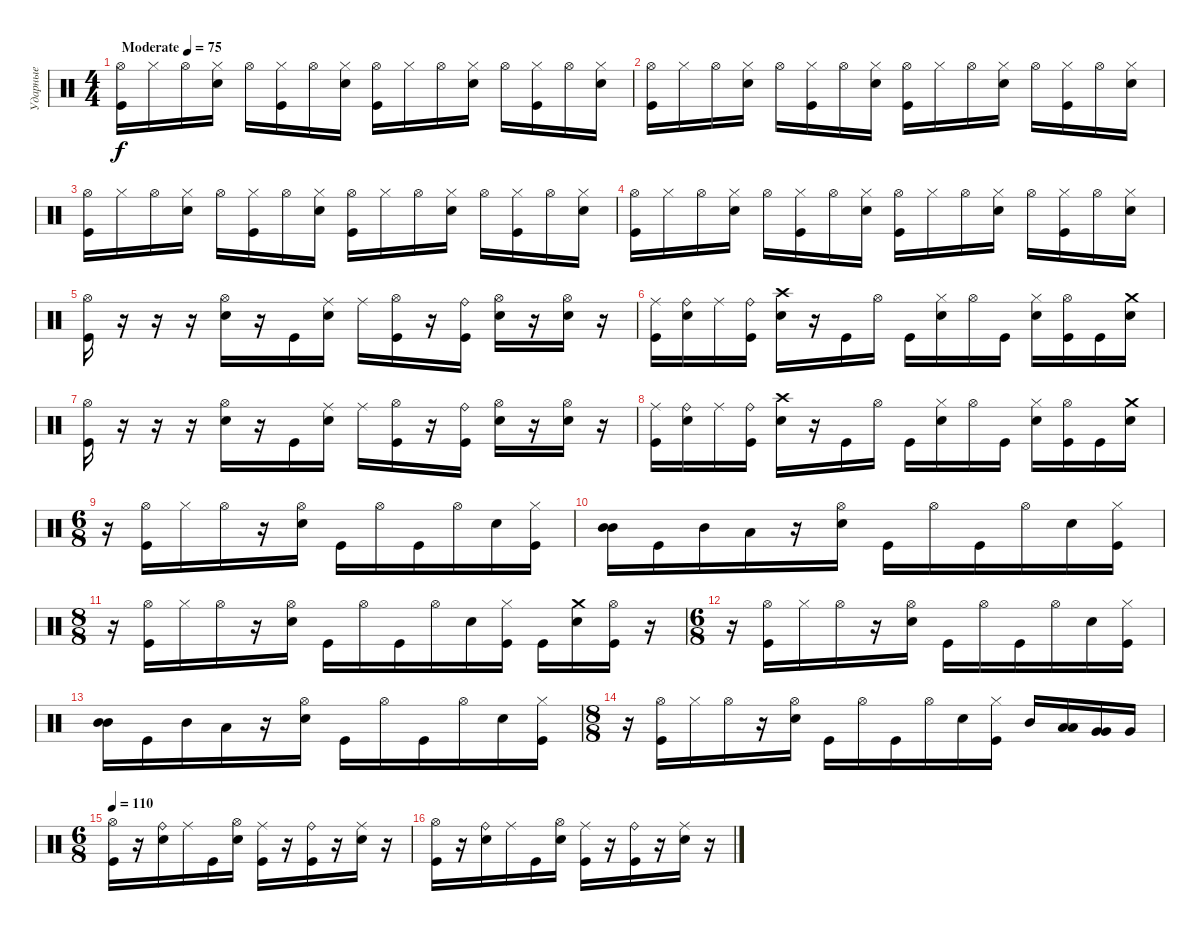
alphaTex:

\track ("Ударные" "Ударные") {instrument percussion}
\staff {score}
\articulation defaults
\ts (4 4)
\tempo (75 "Moderate")
\clef neutral
\ks c
("Hi-Hat (open)" "Kick (hit)").16{dy f} "Hi-Hat (closed)".16 "Hi-Hat (open)".16 ("Hi-Hat (closed)" "Snare (hit) 2").16 "Hi-Hat (open)".16 ("Hi-Hat (closed)" "Kick (hit)").16 "Hi-Hat (open)".16 ("Hi-Hat (closed)" "Snare (hit) 2").16 ("Hi-Hat (open)" "Kick (hit)").16 "Hi-Hat (closed)".16 "Hi-Hat (open)".16 ("Hi-Hat (closed)" "Snare (hit) 2").16 "Hi-Hat (open)".16 ("Hi-Hat (closed)" "Kick (hit)").16 "Hi-Hat (open)".16 ("Hi-Hat (closed)" "Snare (hit) 2").16 |
("Hi-Hat (open)" "Kick (hit)").16 "Hi-Hat (closed)".16 "Hi-Hat (open)".16 ("Hi-Hat (closed)" "Snare (hit) 2").16 "Hi-Hat (open)".16 ("Hi-Hat (closed)" "Kick (hit)").16 "Hi-Hat (open)".16 ("Hi-Hat (closed)" "Snare (hit) 2").16 ("Hi-Hat (open)" "Kick (hit)").16 "Hi-Hat (closed)".16 "Hi-Hat (open)".16 ("Hi-Hat (closed)" "Snare (hit) 2").16 "Hi-Hat (open)".16 ("Hi-Hat (closed)" "Kick (hit)").16 "Hi-Hat (open)".16 ("Hi-Hat (closed)" "Snare (hit) 2").16 |
("Hi-Hat (open)" "Kick (hit)").16 "Hi-Hat (closed)".16 "Hi-Hat (open)".16 ("Hi-Hat (closed)" "Snare (hit) 2").16 "Hi-Hat (open)".16 ("Hi-Hat (closed)" "Kick (hit)").16 "Hi-Hat (open)".16 ("Hi-Hat (closed)" "Snare (hit) 2").16 ("Hi-Hat (open)" "Kick (hit)").16 "Hi-Hat (closed)".16 "Hi-Hat (open)".16 ("Hi-Hat (closed)" "Snare (hit) 2").16 "Hi-Hat (open)".16 ("Hi-Hat (closed)" "Kick (hit)").16 "Hi-Hat (open)".16 ("Hi-Hat (closed)" "Snare (hit) 2").16 |
("Hi-Hat (open)" "Kick (hit)").16 "Hi-Hat (closed)".16 "Hi-Hat (open)".16 ("Hi-Hat (closed)" "Snare (hit) 2").16 "Hi-Hat (open)".16 ("Hi-Hat (closed)" "Kick (hit)").16 "Hi-Hat (open)".16 ("Hi-Hat (closed)" "Snare (hit) 2").16 ("Hi-Hat (open)" "Kick (hit)").16 "Hi-Hat (closed)".16 "Hi-Hat (open)".16 ("Hi-Hat (closed)" "Snare (hit) 2").16 "Hi-Hat (open)".16 ("Hi-Hat (closed)" "Kick (hit)").16 "Hi-Hat (open)".16 ("Hi-Hat (closed)" "Snare (hit) 2").16 |
("Hi-Hat (open)" "Kick (hit)").16 r.16 r.16 r.16 ("Hi-Hat (open)" "Snare (hit) 2").16 r.16 "Kick (hit)".16 ("Ride (middle)" "Snare (hit) 2").16 "Ride (middle)".16 ("Hi-Hat (open)" "Kick (hit)").16 r.16 ("Ride (bell)" "Kick (hit)").16 ("Hi-Hat (open)" "Snare (hit) 2").16 r.16 ("Hi-Hat (open)" "Snare (hit) 2").16 r.16 |
("Ride (middle)" "Kick (hit)").16 ("Ride (bell)" "Snare (hit) 2").16 "Ride (middle)".16 ("Ride (bell)" "Kick (hit)").16 ("Crash high (hit)" "Snare (hit) 2").16 r.16 "Kick (hit)".16 "Hi-Hat (open)".16 "Kick (hit)".16 ("Hi-Hat (closed)" "Snare (hit) 2").16 "Hi-Hat (open)".16 "Kick (hit)".16 ("Hi-Hat (closed)" "Snare (hit) 2").16 ("Hi-Hat (open)" "Kick (hit)").16 "Kick (hit)".16 ("Crash medium (hit)" "Snare (hit) 2").16 |
("Hi-Hat (open)" "Kick (hit)").16 r.16 r.16 r.16 ("Hi-Hat (open)" "Snare (hit) 2").16 r.16 "Kick (hit)".16 ("Ride (middle)" "Snare (hit) 2").16 "Ride (middle)".16 ("Hi-Hat (open)" "Kick (hit)").16 r.16 ("Ride (bell)" "Kick (hit)").16 ("Hi-Hat (open)" "Snare (hit) 2").16 r.16 ("Hi-Hat (open)" "Snare (hit) 2").16 r.16 |
("Ride (middle)" "Kick (hit)").16 ("Ride (bell)" "Snare (hit) 2").16 "Ride (middle)".16 ("Ride (bell)" "Kick (hit)").16 ("Crash high (hit)" "Snare (hit) 2").16 r.16 "Kick (hit)".16 "Hi-Hat (open)".16 "Kick (hit)".16 ("Hi-Hat (closed)" "Snare (hit) 2").16 "Hi-Hat (open)".16 "Kick (hit)".16 ("Hi-Hat (closed)" "Snare (hit) 2").16 ("Hi-Hat (open)" "Kick (hit)").16 "Kick (hit)".16 ("Crash medium (hit)" "Snare (hit) 2").16 |
\ts (6 8)
r.16 ("Hi-Hat (open)" "Kick (hit)").16 "Hi-Hat (closed)".16 "Hi-Hat (open)".16 r.16 ("Hi-Hat (open)" "Snare (hit) 2").16 "Kick (hit)".16 "Hi-Hat (open)".16 "Kick (hit)".16 "Hi-Hat (open)".16 "Snare (hit) 2".16 ("Hi-Hat (closed)" "Kick (hit)").16 |
("Mid Tom (hit)" "Mid Tom (hit)").16{bd 120} "Kick (hit)".16 "Mid Tom (hit)".16 "Low Tom (hit)".16 r.16 ("Hi-Hat (open)" "Snare (hit) 2").16 "Kick (hit)".16 "Hi-Hat (open)".16 "Kick (hit)".16 "Hi-Hat (open)".16 "Snare (hit) 2".16 ("Hi-Hat (closed)" "Kick (hit)").16 |
\ts (8 8)
r.16 ("Hi-Hat (open)" "Kick (hit)").16 "Hi-Hat (closed)".16 "Hi-Hat (open)".16 r.16 ("Hi-Hat (open)" "Snare (hit) 2").16 "Kick (hit)".16 "Hi-Hat (open)".16 "Kick (hit)".16 "Hi-Hat (open)".16 "Snare (hit) 2".16 ("Hi-Hat (closed)" "Kick (hit)").16 "Kick (hit)".16 ("Crash medium (hit)" "Snare (hit) 2").16 ("Hi-Hat (open)" "Kick (hit)").16 r.16 |
\ts (6 8)
r.16 ("Hi-Hat (open)" "Kick (hit)").16 "Hi-Hat (closed)".16 "Hi-Hat (open)".16 r.16 ("Hi-Hat (open)" "Snare (hit) 2").16 "Kick (hit)".16 "Hi-Hat (open)".16 "Kick (hit)".16 "Hi-Hat (open)".16 "Snare (hit) 2".16 ("Hi-Hat (closed)" "Kick (hit)").16 |
("Mid Tom (hit)" "Mid Tom (hit)").16{bd 120} "Kick (hit)".16 "Mid Tom (hit)".16 "Low Tom (hit)".16 r.16 ("Hi-Hat (open)" "Snare (hit) 2").16 "Kick (hit)".16 "Hi-Hat (open)".16 "Kick (hit)".16 "Hi-Hat (open)".16 "Snare (hit) 2".16 ("Hi-Hat (closed)" "Kick (hit)").16 |
\ts (8 8)
r.16 ("Hi-Hat (open)" "Kick (hit)").16 "Hi-Hat (closed)".16 "Hi-Hat (open)".16 r.16 ("Hi-Hat (open)" "Snare (hit) 2").16 "Kick (hit)".16 "Hi-Hat (open)".16 "Kick (hit)".16 "Hi-Hat (open)".16 "Snare (hit) 2".16 ("Hi-Hat (closed)" "Kick (hit)").16 "Mid Tom (hit)".16 ("Low Tom (hit)" "Low Tom (hit)").16{bd 120} ("Very Low Tom (hit)" "Very Low Tom (hit)").16{bu 120} "Very Low Tom (hit)".16 |
\ts (6 8)
\tempo 110
("Hi-Hat (open)" "Kick (hit)").16 r.16 ("Ride (bell)" "Snare (hit) 2").16 "Ride (middle)".16 "Kick (hit)".16 ("Hi-Hat (open)" "Snare (hit) 2").16 ("Ride (middle)" "Kick (hit)").16 r.16 ("Ride (bell)" "Kick (hit)").16 r.16 ("Ride (middle)" "Snare (hit) 2").16 r.16 |
("Hi-Hat (open)" "Kick (hit)").16 r.16 ("Ride (bell)" "Snare (hit) 2").16 "Ride (middle)".16 "Kick (hit)".16 ("Hi-Hat (open)" "Snare (hit) 2").16 ("Ride (middle)" "Kick (hit)").16 r.16 ("Ride (bell)" "Kick (hit)").16 r.16 ("Ride (middle)" "Snare (hit) 2").16 r.16
